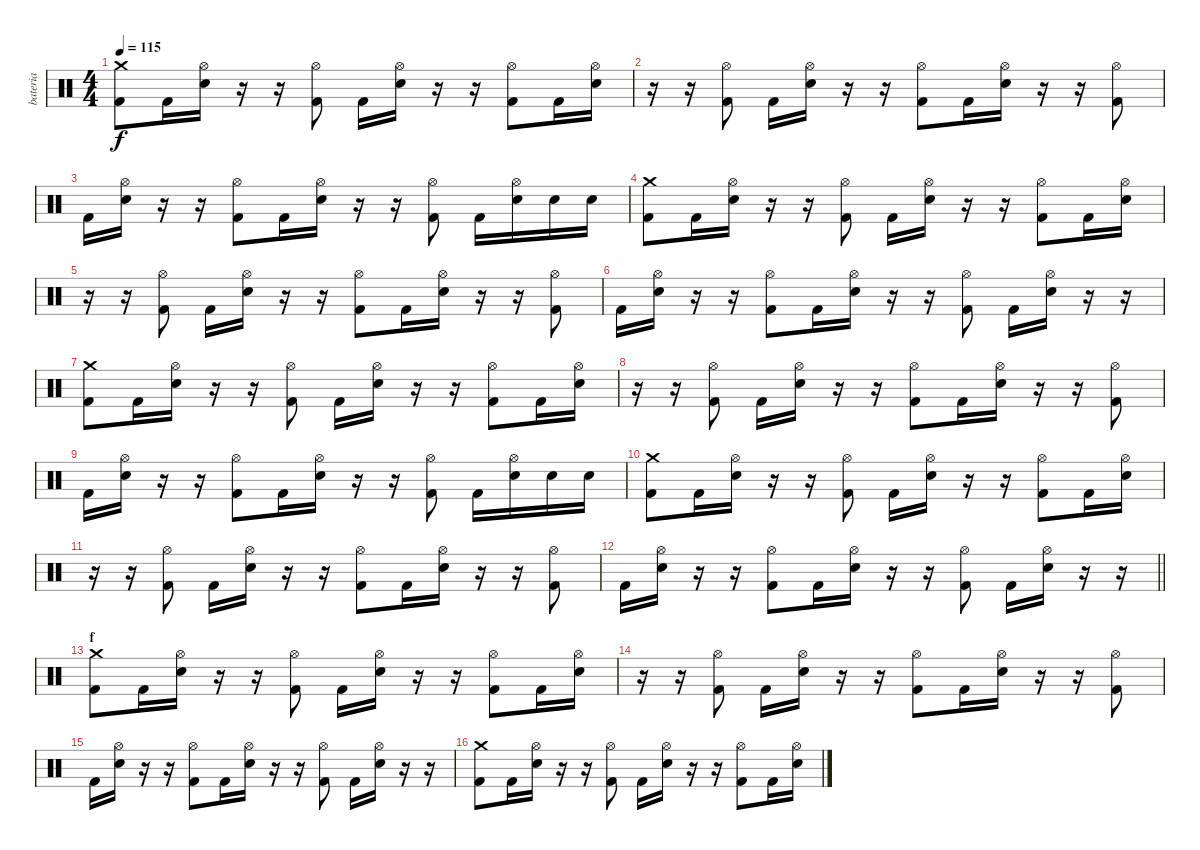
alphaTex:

\track ("bateria" "bateria") {mute instrument percussion}
\staff {score}
\articulation defaults
\ts (4 4)
\tempo 115
\clef neutral
\ks c
("Kick (hit) 2" "Crash medium (hit)").8{dy f} "Kick (hit) 2".16 ("Electric Snare (hit)" "Hi-Hat (open)").16 r.16 r.16 ("Kick (hit) 2" "Hi-Hat (open)").8 "Kick (hit) 2".16 ("Hi-Hat (open)" "Electric Snare (hit)").16 r.16 r.16 ("Kick (hit) 2" "Hi-Hat (open)").8 "Kick (hit) 2".16 ("Hi-Hat (open)" "Electric Snare (hit)").16 |
r.16 r.16 ("Kick (hit) 2" "Hi-Hat (open)").8 "Kick (hit) 2".16 ("Hi-Hat (open)" "Electric Snare (hit)").16 r.16 r.16 ("Kick (hit) 2" "Hi-Hat (open)").8 "Kick (hit) 2".16 ("Hi-Hat (open)" "Electric Snare (hit)").16 r.16 r.16 ("Kick (hit) 2" "Hi-Hat (open)").8 |
"Kick (hit) 2".16 ("Electric Snare (hit)" "Hi-Hat (open)").16 r.16 r.16 ("Kick (hit) 2" "Hi-Hat (open)").8 "Kick (hit) 2".16 ("Hi-Hat (open)" "Electric Snare (hit)").16 r.16 r.16 ("Kick (hit) 2" "Hi-Hat (open)").8 "Kick (hit) 2".16 ("Hi-Hat (open)" "Electric Snare (hit)").16 "Electric Snare (hit)".16 "Electric Snare (hit)".16 |
("Kick (hit) 2" "Crash medium (hit)").8 "Kick (hit) 2".16 ("Electric Snare (hit)" "Hi-Hat (open)").16 r.16 r.16 ("Kick (hit) 2" "Hi-Hat (open)").8 "Kick (hit) 2".16 ("Hi-Hat (open)" "Electric Snare (hit)").16 r.16 r.16 ("Kick (hit) 2" "Hi-Hat (open)").8 "Kick (hit) 2".16 ("Hi-Hat (open)" "Electric Snare (hit)").16 |
r.16 r.16 ("Kick (hit) 2" "Hi-Hat (open)").8 "Kick (hit) 2".16 ("Hi-Hat (open)" "Electric Snare (hit)").16 r.16 r.16 ("Kick (hit) 2" "Hi-Hat (open)").8 "Kick (hit) 2".16 ("Hi-Hat (open)" "Electric Snare (hit)").16 r.16 r.16 ("Kick (hit) 2" "Hi-Hat (open)").8 |
"Kick (hit) 2".16 ("Electric Snare (hit)" "Hi-Hat (open)").16 r.16 r.16 ("Kick (hit) 2" "Hi-Hat (open)").8 "Kick (hit) 2".16 ("Hi-Hat (open)" "Electric Snare (hit)").16 r.16 r.16 ("Kick (hit) 2" "Hi-Hat (open)").8 "Kick (hit) 2".16 ("Hi-Hat (open)" "Electric Snare (hit)").16 r.16 r.16 |
("Kick (hit) 2" "Crash medium (hit)").8 "Kick (hit) 2".16 ("Electric Snare (hit)" "Hi-Hat (open)").16 r.16 r.16 ("Kick (hit) 2" "Hi-Hat (open)").8 "Kick (hit) 2".16 ("Hi-Hat (open)" "Electric Snare (hit)").16 r.16 r.16 ("Kick (hit) 2" "Hi-Hat (open)").8 "Kick (hit) 2".16 ("Hi-Hat (open)" "Electric Snare (hit)").16 |
r.16 r.16 ("Kick (hit) 2" "Hi-Hat (open)").8 "Kick (hit) 2".16 ("Hi-Hat (open)" "Electric Snare (hit)").16 r.16 r.16 ("Kick (hit) 2" "Hi-Hat (open)").8 "Kick (hit) 2".16 ("Hi-Hat (open)" "Electric Snare (hit)").16 r.16 r.16 ("Kick (hit) 2" "Hi-Hat (open)").8 |
"Kick (hit) 2".16 ("Electric Snare (hit)" "Hi-Hat (open)").16 r.16 r.16 ("Kick (hit) 2" "Hi-Hat (open)").8 "Kick (hit) 2".16 ("Hi-Hat (open)" "Electric Snare (hit)").16 r.16 r.16 ("Kick (hit) 2" "Hi-Hat (open)").8 "Kick (hit) 2".16 ("Hi-Hat (open)" "Electric Snare (hit)").16 "Electric Snare (hit)".16 "Electric Snare (hit)".16 |
("Kick (hit) 2" "Crash medium (hit)").8 "Kick (hit) 2".16 ("Electric Snare (hit)" "Hi-Hat (open)").16 r.16 r.16 ("Kick (hit) 2" "Hi-Hat (open)").8 "Kick (hit) 2".16 ("Hi-Hat (open)" "Electric Snare (hit)").16 r.16 r.16 ("Kick (hit) 2" "Hi-Hat (open)").8 "Kick (hit) 2".16 ("Hi-Hat (open)" "Electric Snare (hit)").16 |
r.16 r.16 ("Kick (hit) 2" "Hi-Hat (open)").8 "Kick (hit) 2".16 ("Hi-Hat (open)" "Electric Snare (hit)").16 r.16 r.16 ("Kick (hit) 2" "Hi-Hat (open)").8 "Kick (hit) 2".16 ("Hi-Hat (open)" "Electric Snare (hit)").16 r.16 r.16 ("Kick (hit) 2" "Hi-Hat (open)").8 |
\barLineRight lightlight "Kick (hit) 2".16
("Electric Snare (hit)" "Hi-Hat (open)").16 r.16 r.16 ("Kick (hit) 2" "Hi-Hat (open)").8 "Kick (hit) 2".16 ("Hi-Hat (open)" "Electric Snare (hit)").16 r.16 r.16 ("Kick (hit) 2" "Hi-Hat (open)").8 "Kick (hit) 2".16 ("Hi-Hat (open)" "Electric Snare (hit)").16 r.16 r.16 |
\section ("" "f")
("Kick (hit) 2" "Crash medium (hit)").8 "Kick (hit) 2".16 ("Electric Snare (hit)" "Hi-Hat (open)").16 r.16 r.16 ("Kick (hit) 2" "Hi-Hat (open)").8 "Kick (hit) 2".16 ("Hi-Hat (open)" "Electric Snare (hit)").16 r.16 r.16 ("Kick (hit) 2" "Hi-Hat (open)").8 "Kick (hit) 2".16 ("Hi-Hat (open)" "Electric Snare (hit)").16 |
r.16 r.16 ("Kick (hit) 2" "Hi-Hat (open)").8 "Kick (hit) 2".16 ("Hi-Hat (open)" "Electric Snare (hit)").16 r.16 r.16 ("Kick (hit) 2" "Hi-Hat (open)").8 "Kick (hit) 2".16 ("Hi-Hat (open)" "Electric Snare (hit)").16 r.16 r.16 ("Kick (hit) 2" "Hi-Hat (open)").8 |
"Kick (hit) 2".16 ("Electric Snare (hit)" "Hi-Hat (open)").16 r.16 r.16 ("Kick (hit) 2" "Hi-Hat (open)").8 "Kick (hit) 2".16 ("Hi-Hat (open)" "Electric Snare (hit)").16 r.16 r.16 ("Kick (hit) 2" "Hi-Hat (open)").8 "Kick (hit) 2".16 ("Hi-Hat (open)" "Electric Snare (hit)").16 r.16 r.16 |
("Kick (hit) 2" "Crash medium (hit)").8 "Kick (hit) 2".16 ("Electric Snare (hit)" "Hi-Hat (open)").16 r.16 r.16 ("Kick (hit) 2" "Hi-Hat (open)").8 "Kick (hit) 2".16 ("Hi-Hat (open)" "Electric Snare (hit)").16 r.16 r.16 ("Kick (hit) 2" "Hi-Hat (open)").8 "Kick (hit) 2".16 ("Hi-Hat (open)" "Electric Snare (hit)").16
